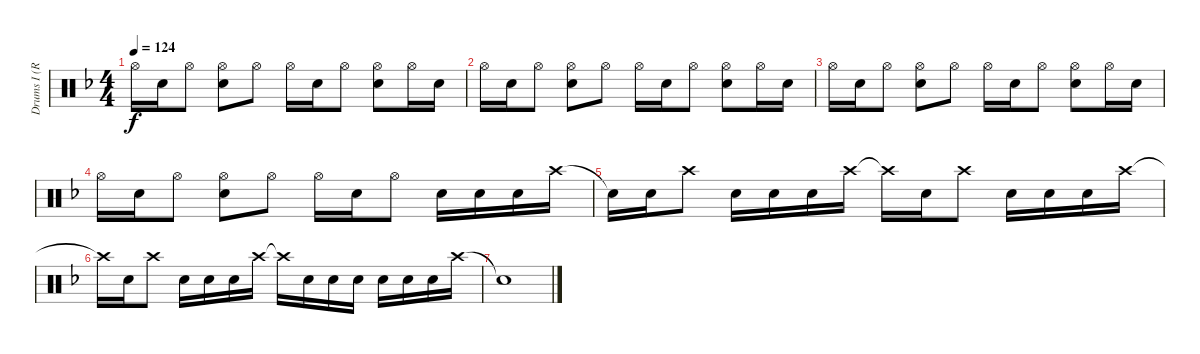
\track ("Drums I (RUKA)" "Drums I (R") {instrument percussion}
\staff {score}
\articulation defaults
\ts (4 4)
\tempo 124
\clef neutral
\ks f "Hi-Hat (open)".16{dy f} "Snare (hit) 2".16 "Hi-Hat (open)".8
("Hi-Hat (open)" "Snare (hit) 2").8 "Hi-Hat (open)".8 "Hi-Hat (open)".16 "Snare (hit) 2".16 "Hi-Hat (open)".8 ("Hi-Hat (open)" "Snare (hit) 2").8 "Hi-Hat (open)".16 "Snare (hit) 2".16 |
"Hi-Hat (open)".16 "Snare (hit) 2".16 "Hi-Hat (open)".8 ("Hi-Hat (open)" "Snare (hit) 2").8 "Hi-Hat (open)".8 "Hi-Hat (open)".16 "Snare (hit) 2".16 "Hi-Hat (open)".8 ("Hi-Hat (open)" "Snare (hit) 2").8 "Hi-Hat (open)".16 "Snare (hit) 2".16 |
"Hi-Hat (open)".16 "Snare (hit) 2".16 "Hi-Hat (open)".8 ("Hi-Hat (open)" "Snare (hit) 2").8 "Hi-Hat (open)".8 "Hi-Hat (open)".16 "Snare (hit) 2".16 "Hi-Hat (open)".8 ("Hi-Hat (open)" "Snare (hit) 2").8 "Hi-Hat (open)".16 "Snare (hit) 2".16 |
"Hi-Hat (open)".16 "Snare (hit) 2".16 "Hi-Hat (open)".8 ("Hi-Hat (open)" "Snare (hit) 2").8 "Hi-Hat (open)".8 "Hi-Hat (open)".16 "Snare (hit) 2".16 "Hi-Hat (open)".8 "Snare (hit) 2".16 "Snare (hit) 2".16 "Snare (hit) 2".16 "Crash high (hit)".16 |
"Snare (hit)"{t}.16 "Snare (hit) 2".16 "Crash high (hit)".8 "Snare (hit) 2".16 "Snare (hit) 2".16 "Snare (hit) 2".16 "Crash high (hit)".16 "Crash high (hit)"{t}.16 "Snare (hit) 2".16 "Crash high (hit)".8 "Snare (hit) 2".16 "Snare (hit) 2".16 "Snare (hit) 2".16 "Crash high (hit)".16 |
"Crash high (hit)"{t}.16 "Snare (hit) 2".16 "Crash high (hit)".8 "Snare (hit) 2".16 "Snare (hit) 2".16 "Snare (hit) 2".16 "Crash high (hit)".16 "Crash high (hit)"{t}.16 "Snare (hit) 2".16 "Snare (hit) 2".16 "Snare (hit) 2".16 "Snare (hit) 2".16 "Snare (hit) 2".16 "Snare (hit) 2".16 "Crash high (hit)".16 |
"Snare (hit)"{t}.1
